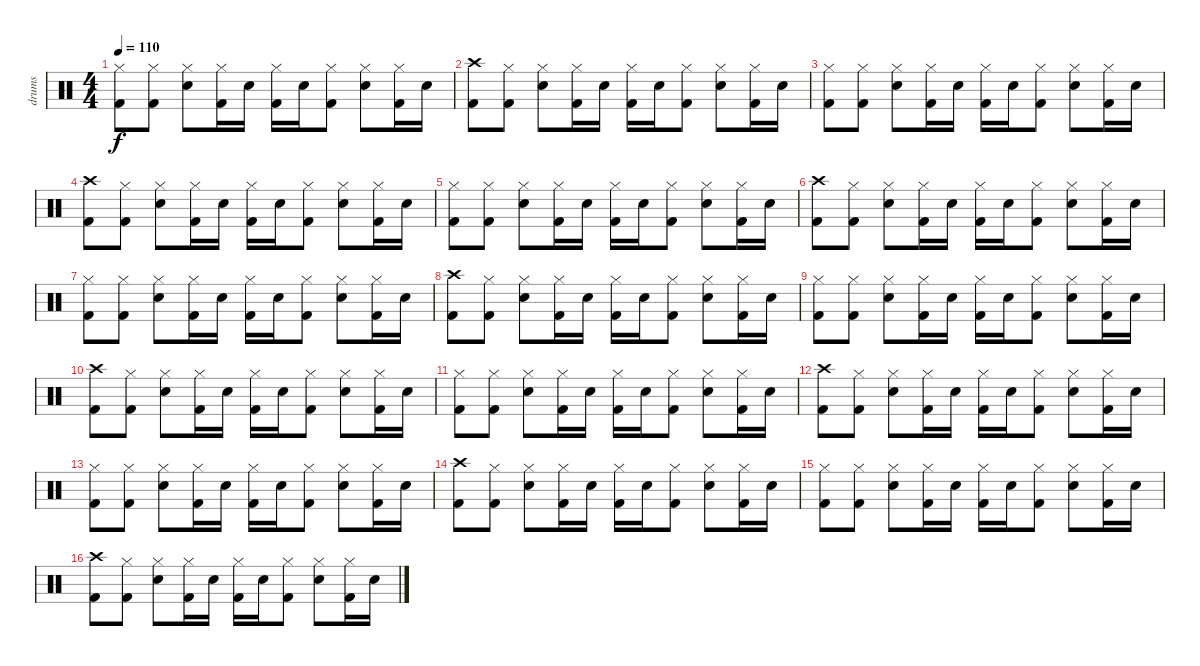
\track ("drums" "drums") {instrument percussion}
\staff {score}
\articulation defaults
\ts (4 4)
\tempo 110
\clef neutral
\ks c
("Hi-Hat (closed)" "Kick (hit) 2").8{dy f} ("Hi-Hat (closed)" "Kick (hit) 2").8 ("Hi-Hat (closed)" "Snare (hit) 2").8 ("Hi-Hat (closed)" "Kick (hit) 2").16 "Snare (hit) 2".16 ("Hi-Hat (closed)" "Kick (hit) 2").16 "Snare (hit) 2".16 ("Hi-Hat (closed)" "Kick (hit) 2").8 ("Hi-Hat (closed)" "Snare (hit) 2").8 ("Hi-Hat (closed)" "Kick (hit) 2").16 "Snare (hit) 2".16 |
("Crash high (hit)" "Kick (hit) 2").8 ("Hi-Hat (closed)" "Kick (hit) 2").8 ("Hi-Hat (closed)" "Snare (hit) 2").8 ("Hi-Hat (closed)" "Kick (hit) 2").16 "Snare (hit) 2".16 ("Hi-Hat (closed)" "Kick (hit) 2").16 "Snare (hit) 2".16 ("Hi-Hat (closed)" "Kick (hit) 2").8 ("Hi-Hat (closed)" "Snare (hit) 2").8 ("Hi-Hat (closed)" "Kick (hit) 2").16 "Snare (hit) 2".16 |
("Hi-Hat (closed)" "Kick (hit) 2").8 ("Hi-Hat (closed)" "Kick (hit) 2").8 ("Hi-Hat (closed)" "Snare (hit) 2").8 ("Hi-Hat (closed)" "Kick (hit) 2").16 "Snare (hit) 2".16 ("Hi-Hat (closed)" "Kick (hit) 2").16 "Snare (hit) 2".16 ("Hi-Hat (closed)" "Kick (hit) 2").8 ("Hi-Hat (closed)" "Snare (hit) 2").8 ("Hi-Hat (closed)" "Kick (hit) 2").16 "Snare (hit) 2".16 |
("Crash high (hit)" "Kick (hit) 2").8 ("Hi-Hat (closed)" "Kick (hit) 2").8 ("Hi-Hat (closed)" "Snare (hit) 2").8 ("Hi-Hat (closed)" "Kick (hit) 2").16 "Snare (hit) 2".16 ("Hi-Hat (closed)" "Kick (hit) 2").16 "Snare (hit) 2".16 ("Hi-Hat (closed)" "Kick (hit) 2").8 ("Hi-Hat (closed)" "Snare (hit) 2").8 ("Hi-Hat (closed)" "Kick (hit) 2").16 "Snare (hit) 2".16 |
("Hi-Hat (closed)" "Kick (hit) 2").8 ("Hi-Hat (closed)" "Kick (hit) 2").8 ("Hi-Hat (closed)" "Snare (hit) 2").8 ("Hi-Hat (closed)" "Kick (hit) 2").16 "Snare (hit) 2".16 ("Hi-Hat (closed)" "Kick (hit) 2").16 "Snare (hit) 2".16 ("Hi-Hat (closed)" "Kick (hit) 2").8 ("Hi-Hat (closed)" "Snare (hit) 2").8 ("Hi-Hat (closed)" "Kick (hit) 2").16 "Snare (hit) 2".16 |
("Crash high (hit)" "Kick (hit) 2").8 ("Hi-Hat (closed)" "Kick (hit) 2").8 ("Hi-Hat (closed)" "Snare (hit) 2").8 ("Hi-Hat (closed)" "Kick (hit) 2").16 "Snare (hit) 2".16 ("Hi-Hat (closed)" "Kick (hit) 2").16 "Snare (hit) 2".16 ("Hi-Hat (closed)" "Kick (hit) 2").8 ("Hi-Hat (closed)" "Snare (hit) 2").8 ("Hi-Hat (closed)" "Kick (hit) 2").16 "Snare (hit) 2".16 |
("Hi-Hat (closed)" "Kick (hit) 2").8 ("Hi-Hat (closed)" "Kick (hit) 2").8 ("Hi-Hat (closed)" "Snare (hit) 2").8 ("Hi-Hat (closed)" "Kick (hit) 2").16 "Snare (hit) 2".16 ("Hi-Hat (closed)" "Kick (hit) 2").16 "Snare (hit) 2".16 ("Hi-Hat (closed)" "Kick (hit) 2").8 ("Hi-Hat (closed)" "Snare (hit) 2").8 ("Hi-Hat (closed)" "Kick (hit) 2").16 "Snare (hit) 2".16 |
("Crash high (hit)" "Kick (hit) 2").8 ("Hi-Hat (closed)" "Kick (hit) 2").8 ("Hi-Hat (closed)" "Snare (hit) 2").8 ("Hi-Hat (closed)" "Kick (hit) 2").16 "Snare (hit) 2".16 ("Hi-Hat (closed)" "Kick (hit) 2").16 "Snare (hit) 2".16 ("Hi-Hat (closed)" "Kick (hit) 2").8 ("Hi-Hat (closed)" "Snare (hit) 2").8 ("Hi-Hat (closed)" "Kick (hit) 2").16 "Snare (hit) 2".16 |
("Hi-Hat (closed)" "Kick (hit) 2").8 ("Hi-Hat (closed)" "Kick (hit) 2").8 ("Hi-Hat (closed)" "Snare (hit) 2").8 ("Hi-Hat (closed)" "Kick (hit) 2").16 "Snare (hit) 2".16 ("Hi-Hat (closed)" "Kick (hit) 2").16 "Snare (hit) 2".16 ("Hi-Hat (closed)" "Kick (hit) 2").8 ("Hi-Hat (closed)" "Snare (hit) 2").8 ("Hi-Hat (closed)" "Kick (hit) 2").16 "Snare (hit) 2".16 |
("Crash high (hit)" "Kick (hit) 2").8 ("Hi-Hat (closed)" "Kick (hit) 2").8 ("Hi-Hat (closed)" "Snare (hit) 2").8 ("Hi-Hat (closed)" "Kick (hit) 2").16 "Snare (hit) 2".16 ("Hi-Hat (closed)" "Kick (hit) 2").16 "Snare (hit) 2".16 ("Hi-Hat (closed)" "Kick (hit) 2").8 ("Hi-Hat (closed)" "Snare (hit) 2").8 ("Hi-Hat (closed)" "Kick (hit) 2").16 "Snare (hit) 2".16 |
("Hi-Hat (closed)" "Kick (hit) 2").8 ("Hi-Hat (closed)" "Kick (hit) 2").8 ("Hi-Hat (closed)" "Snare (hit) 2").8 ("Hi-Hat (closed)" "Kick (hit) 2").16 "Snare (hit) 2".16 ("Hi-Hat (closed)" "Kick (hit) 2").16 "Snare (hit) 2".16 ("Hi-Hat (closed)" "Kick (hit) 2").8 ("Hi-Hat (closed)" "Snare (hit) 2").8 ("Hi-Hat (closed)" "Kick (hit) 2").16 "Snare (hit) 2".16 |
("Crash high (hit)" "Kick (hit) 2").8 ("Hi-Hat (closed)" "Kick (hit) 2").8 ("Hi-Hat (closed)" "Snare (hit) 2").8 ("Hi-Hat (closed)" "Kick (hit) 2").16 "Snare (hit) 2".16 ("Hi-Hat (closed)" "Kick (hit) 2").16 "Snare (hit) 2".16 ("Hi-Hat (closed)" "Kick (hit) 2").8 ("Hi-Hat (closed)" "Snare (hit) 2").8 ("Hi-Hat (closed)" "Kick (hit) 2").16 "Snare (hit) 2".16 |
("Hi-Hat (closed)" "Kick (hit) 2").8 ("Hi-Hat (closed)" "Kick (hit) 2").8 ("Hi-Hat (closed)" "Snare (hit) 2").8 ("Hi-Hat (closed)" "Kick (hit) 2").16 "Snare (hit) 2".16 ("Hi-Hat (closed)" "Kick (hit) 2").16 "Snare (hit) 2".16 ("Hi-Hat (closed)" "Kick (hit) 2").8 ("Hi-Hat (closed)" "Snare (hit) 2").8 ("Hi-Hat (closed)" "Kick (hit) 2").16 "Snare (hit) 2".16 |
("Crash high (hit)" "Kick (hit) 2").8 ("Hi-Hat (closed)" "Kick (hit) 2").8 ("Hi-Hat (closed)" "Snare (hit) 2").8 ("Hi-Hat (closed)" "Kick (hit) 2").16 "Snare (hit) 2".16 ("Hi-Hat (closed)" "Kick (hit) 2").16 "Snare (hit) 2".16 ("Hi-Hat (closed)" "Kick (hit) 2").8 ("Hi-Hat (closed)" "Snare (hit) 2").8 ("Hi-Hat (closed)" "Kick (hit) 2").16 "Snare (hit) 2".16 |
("Hi-Hat (closed)" "Kick (hit) 2").8 ("Hi-Hat (closed)" "Kick (hit) 2").8 ("Hi-Hat (closed)" "Snare (hit) 2").8 ("Hi-Hat (closed)" "Kick (hit) 2").16 "Snare (hit) 2".16 ("Hi-Hat (closed)" "Kick (hit) 2").16 "Snare (hit) 2".16 ("Hi-Hat (closed)" "Kick (hit) 2").8 ("Hi-Hat (closed)" "Snare (hit) 2").8 ("Hi-Hat (closed)" "Kick (hit) 2").16 "Snare (hit) 2".16 |
("Crash high (hit)" "Kick (hit) 2").8 ("Hi-Hat (closed)" "Kick (hit) 2").8 ("Hi-Hat (closed)" "Snare (hit) 2").8 ("Hi-Hat (closed)" "Kick (hit) 2").16 "Snare (hit) 2".16 ("Hi-Hat (closed)" "Kick (hit) 2").16 "Snare (hit) 2".16 ("Hi-Hat (closed)" "Kick (hit) 2").8 ("Hi-Hat (closed)" "Snare (hit) 2").8 ("Hi-Hat (closed)" "Kick (hit) 2").16 "Snare (hit) 2".16
